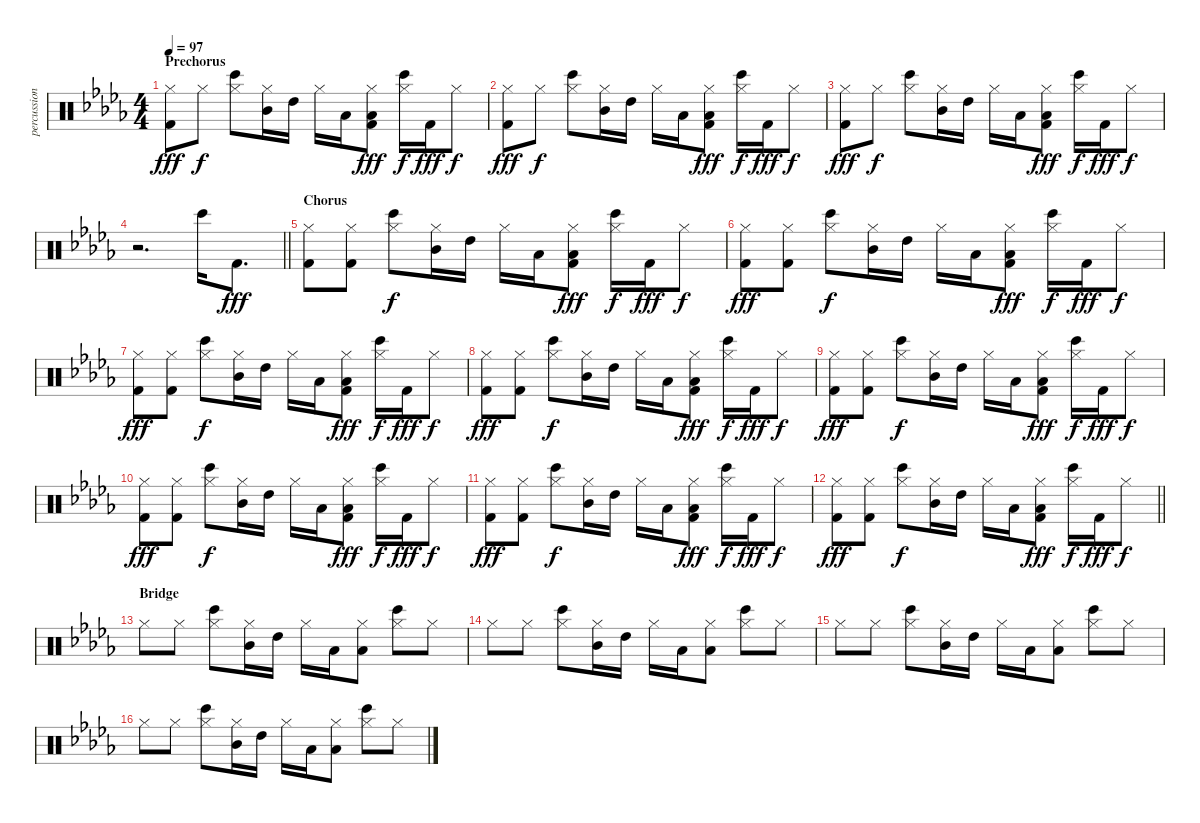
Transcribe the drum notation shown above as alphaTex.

\track ("percussion" "percussion") {instrument percussion}
\staff {score}
\articulation defaults
\ts (4 4)
\section ("" "Prechorus")
\tempo 97
\clef neutral
\ks bbminor
("Hi-Hat (closed)" "Kick (hit) 2").8{dy fff} "Hi-Hat (closed)".8{dy f} ("Bongo High (hit)" "Hi-Hat (closed)").8 ("Mid Tom (hit)" "Hi-Hat (closed)").16 "High Tom (hit)".16 "Hi-Hat (closed)".16 "Low Tom (hit)".16 ("Low Tom (hit)" "Hi-Hat (closed)" "Kick (hit) 2").8{dy fff} ("Bongo High (hit)" "Hi-Hat (closed)").16{dy f} "Kick (hit) 2".16{dy fff} "Hi-Hat (closed)".8{dy f} |
("Hi-Hat (closed)" "Kick (hit) 2").8{dy fff} "Hi-Hat (closed)".8{dy f} ("Bongo High (hit)" "Hi-Hat (closed)").8 ("Mid Tom (hit)" "Hi-Hat (closed)").16 "High Tom (hit)".16 "Hi-Hat (closed)".16 "Low Tom (hit)".16 ("Low Tom (hit)" "Hi-Hat (closed)" "Kick (hit) 2").8{dy fff} ("Bongo High (hit)" "Hi-Hat (closed)").16{dy f} "Kick (hit) 2".16{dy fff} "Hi-Hat (closed)".8{dy f} |
("Hi-Hat (closed)" "Kick (hit) 2").8{dy fff} "Hi-Hat (closed)".8{dy f} ("Bongo High (hit)" "Hi-Hat (closed)").8 ("Mid Tom (hit)" "Hi-Hat (closed)").16 "High Tom (hit)".16 "Hi-Hat (closed)".16 "Low Tom (hit)".16 ("Low Tom (hit)" "Hi-Hat (closed)" "Kick (hit) 2").8{dy fff} ("Bongo High (hit)" "Hi-Hat (closed)").16{dy f} "Kick (hit) 2".16{dy fff} "Hi-Hat (closed)".8{dy f} |
\barLineRight lightlight
r.2{d} "Bongo High (hit)".16 "Kick (hit) 2".8{d dy fff} |
\section ("" "Chorus")
("Hi-Hat (closed)" "Kick (hit) 2").8 ("Hi-Hat (closed)" "Kick (hit) 2").8 ("Bongo High (hit)" "Hi-Hat (closed)").8{dy f} ("Mid Tom (hit)" "Hi-Hat (closed)").16 "High Tom (hit)".16 "Hi-Hat (closed)".16 "Low Tom (hit)".16 ("Low Tom (hit)" "Hi-Hat (closed)" "Kick (hit) 2").8{dy fff} ("Bongo High (hit)" "Hi-Hat (closed)").16{dy f} "Kick (hit) 2".16{dy fff} "Hi-Hat (closed)".8{dy f} |
("Hi-Hat (closed)" "Kick (hit) 2").8{dy fff} ("Hi-Hat (closed)" "Kick (hit) 2").8 ("Bongo High (hit)" "Hi-Hat (closed)").8{dy f} ("Mid Tom (hit)" "Hi-Hat (closed)").16 "High Tom (hit)".16 "Hi-Hat (closed)".16 "Low Tom (hit)".16 ("Low Tom (hit)" "Hi-Hat (closed)" "Kick (hit) 2").8{dy fff} ("Bongo High (hit)" "Hi-Hat (closed)").16{dy f} "Kick (hit) 2".16{dy fff} "Hi-Hat (closed)".8{dy f} |
("Hi-Hat (closed)" "Kick (hit) 2").8{dy fff} ("Hi-Hat (closed)" "Kick (hit) 2").8 ("Bongo High (hit)" "Hi-Hat (closed)").8{dy f} ("Mid Tom (hit)" "Hi-Hat (closed)").16 "High Tom (hit)".16 "Hi-Hat (closed)".16 "Low Tom (hit)".16 ("Low Tom (hit)" "Hi-Hat (closed)" "Kick (hit) 2").8{dy fff} ("Bongo High (hit)" "Hi-Hat (closed)").16{dy f} "Kick (hit) 2".16{dy fff} "Hi-Hat (closed)".8{dy f} |
("Hi-Hat (closed)" "Kick (hit) 2").8{dy fff} ("Hi-Hat (closed)" "Kick (hit) 2").8 ("Bongo High (hit)" "Hi-Hat (closed)").8{dy f} ("Mid Tom (hit)" "Hi-Hat (closed)").16 "High Tom (hit)".16 "Hi-Hat (closed)".16 "Low Tom (hit)".16 ("Low Tom (hit)" "Hi-Hat (closed)" "Kick (hit) 2").8{dy fff} ("Bongo High (hit)" "Hi-Hat (closed)").16{dy f} "Kick (hit) 2".16{dy fff} "Hi-Hat (closed)".8{dy f} |
("Hi-Hat (closed)" "Kick (hit) 2").8{dy fff} ("Hi-Hat (closed)" "Kick (hit) 2").8 ("Bongo High (hit)" "Hi-Hat (closed)").8{dy f} ("Mid Tom (hit)" "Hi-Hat (closed)").16 "High Tom (hit)".16 "Hi-Hat (closed)".16 "Low Tom (hit)".16 ("Low Tom (hit)" "Hi-Hat (closed)" "Kick (hit) 2").8{dy fff} ("Bongo High (hit)" "Hi-Hat (closed)").16{dy f} "Kick (hit) 2".16{dy fff} "Hi-Hat (closed)".8{dy f} |
("Hi-Hat (closed)" "Kick (hit) 2").8{dy fff} ("Hi-Hat (closed)" "Kick (hit) 2").8 ("Bongo High (hit)" "Hi-Hat (closed)").8{dy f} ("Mid Tom (hit)" "Hi-Hat (closed)").16 "High Tom (hit)".16 "Hi-Hat (closed)".16 "Low Tom (hit)".16 ("Low Tom (hit)" "Hi-Hat (closed)" "Kick (hit) 2").8{dy fff} ("Bongo High (hit)" "Hi-Hat (closed)").16{dy f} "Kick (hit) 2".16{dy fff} "Hi-Hat (closed)".8{dy f} |
("Hi-Hat (closed)" "Kick (hit) 2").8{dy fff} ("Hi-Hat (closed)" "Kick (hit) 2").8 ("Bongo High (hit)" "Hi-Hat (closed)").8{dy f} ("Mid Tom (hit)" "Hi-Hat (closed)").16 "High Tom (hit)".16 "Hi-Hat (closed)".16 "Low Tom (hit)".16 ("Low Tom (hit)" "Hi-Hat (closed)" "Kick (hit) 2").8{dy fff} ("Bongo High (hit)" "Hi-Hat (closed)").16{dy f} "Kick (hit) 2".16{dy fff} "Hi-Hat (closed)".8{dy f} |
\barLineRight lightlight
("Hi-Hat (closed)" "Kick (hit) 2").8{dy fff} ("Hi-Hat (closed)" "Kick (hit) 2").8 ("Bongo High (hit)" "Hi-Hat (closed)").8{dy f} ("Mid Tom (hit)" "Hi-Hat (closed)").16 "High Tom (hit)".16 "Hi-Hat (closed)".16 "Low Tom (hit)".16 ("Low Tom (hit)" "Hi-Hat (closed)" "Kick (hit) 2").8{dy fff} ("Bongo High (hit)" "Hi-Hat (closed)").16{dy f} "Kick (hit) 2".16{dy fff} "Hi-Hat (closed)".8{dy f} |
\section ("" "Bridge")
"Hi-Hat (closed)".8 "Hi-Hat (closed)".8 ("Bongo High (hit)" "Hi-Hat (closed)").8 ("Mid Tom (hit)" "Hi-Hat (closed)").16 "High Tom (hit)".16 "Hi-Hat (closed)".16 "Low Tom (hit)".16 ("Low Tom (hit)" "Hi-Hat (closed)").8 ("Bongo High (hit)" "Hi-Hat (closed)").8 "Hi-Hat (closed)".8 |
"Hi-Hat (closed)".8 "Hi-Hat (closed)".8 ("Bongo High (hit)" "Hi-Hat (closed)").8 ("Mid Tom (hit)" "Hi-Hat (closed)").16 "High Tom (hit)".16 "Hi-Hat (closed)".16 "Low Tom (hit)".16 ("Low Tom (hit)" "Hi-Hat (closed)").8 ("Bongo High (hit)" "Hi-Hat (closed)").8 "Hi-Hat (closed)".8 |
"Hi-Hat (closed)".8 "Hi-Hat (closed)".8 ("Bongo High (hit)" "Hi-Hat (closed)").8 ("Mid Tom (hit)" "Hi-Hat (closed)").16 "High Tom (hit)".16 "Hi-Hat (closed)".16 "Low Tom (hit)".16 ("Low Tom (hit)" "Hi-Hat (closed)").8 ("Bongo High (hit)" "Hi-Hat (closed)").8 "Hi-Hat (closed)".8 |
"Hi-Hat (closed)".8 "Hi-Hat (closed)".8 ("Bongo High (hit)" "Hi-Hat (closed)").8 ("Mid Tom (hit)" "Hi-Hat (closed)").16 "High Tom (hit)".16 "Hi-Hat (closed)".16 "Low Tom (hit)".16 ("Low Tom (hit)" "Hi-Hat (closed)").8 ("Bongo High (hit)" "Hi-Hat (closed)").8 "Hi-Hat (closed)".8
